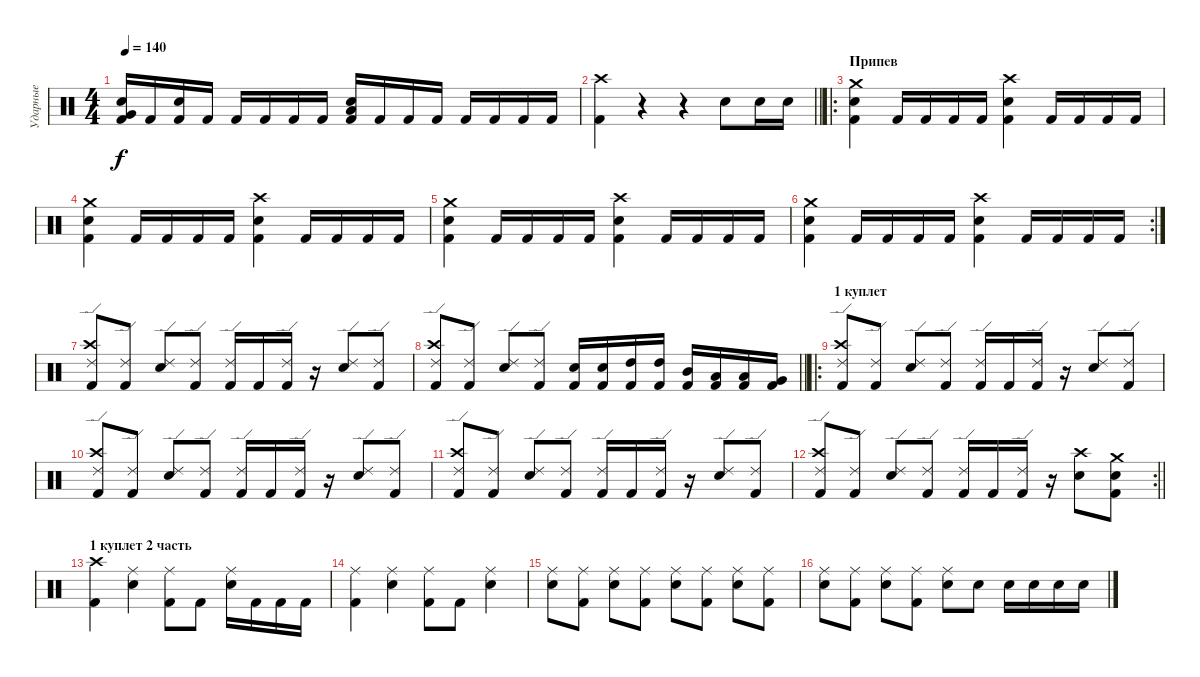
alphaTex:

\track ("Ударные" "Ударные") {instrument percussion}
\staff {score}
\articulation defaults
\ts (4 4)
\tempo 140
\clef neutral
\ks c
("Snare (hit) 2" "Very Low Tom (hit)" "Kick (hit) 2").16{dy f} "Kick (hit) 2".16 ("Snare (hit) 2" "Kick (hit) 2").16 "Kick (hit) 2".16 "Kick (hit) 2".16 "Kick (hit) 2".16 "Kick (hit) 2".16 "Kick (hit) 2".16 ("Snare (hit) 2" "Low Floor Tom (hit)" "Kick (hit) 2").16 "Kick (hit) 2".16 "Kick (hit) 2".16 "Kick (hit) 2".16 "Kick (hit) 2".16 "Kick (hit) 2".16 "Kick (hit) 2".16 "Kick (hit) 2".16 |
\barLineRight lightlight
("Crash high (hit)" "Kick (hit) 2").4 r.4 r.4 "Snare (hit) 2".8 "Snare (hit) 2".16 "Snare (hit) 2".16 |
\ro
\section ("" "Припев")
("Snare (hit) 2" "Crash medium (hit)" "Kick (hit) 2").4 "Kick (hit) 2".16 "Kick (hit) 2".16 "Kick (hit) 2".16 "Kick (hit) 2".16 ("Snare (hit) 2" "Crash high (hit)" "Kick (hit) 2").4 "Kick (hit) 2".16 "Kick (hit) 2".16 "Kick (hit) 2".16 "Kick (hit) 2".16 |
("Snare (hit) 2" "Crash medium (hit)" "Kick (hit) 2").4 "Kick (hit) 2".16 "Kick (hit) 2".16 "Kick (hit) 2".16 "Kick (hit) 2".16 ("Snare (hit) 2" "Crash high (hit)" "Kick (hit) 2").4 "Kick (hit) 2".16 "Kick (hit) 2".16 "Kick (hit) 2".16 "Kick (hit) 2".16 |
("Snare (hit) 2" "Crash medium (hit)" "Kick (hit) 2").4 "Kick (hit) 2".16 "Kick (hit) 2".16 "Kick (hit) 2".16 "Kick (hit) 2".16 ("Snare (hit) 2" "Crash high (hit)" "Kick (hit) 2").4 "Kick (hit) 2".16 "Kick (hit) 2".16 "Kick (hit) 2".16 "Kick (hit) 2".16 |
\rc 2
("Snare (hit) 2" "Crash medium (hit)" "Kick (hit) 2").4 "Kick (hit) 2".16 "Kick (hit) 2".16 "Kick (hit) 2".16 "Kick (hit) 2".16 ("Snare (hit) 2" "Crash high (hit)" "Kick (hit) 2").4 "Kick (hit) 2".16 "Kick (hit) 2".16 "Kick (hit) 2".16 "Kick (hit) 2".16 |
("Crash high (hit)" "Ride (edge) 2" "Kick (hit) 2").8 ("Ride (edge) 2" "Kick (hit) 2").8 ("Snare (hit) 2" "Ride (edge) 2").8 ("Ride (edge) 2" "Kick (hit) 2").8 ("Ride (edge) 2" "Kick (hit) 2").16 "Kick (hit) 2".16 ("Ride (edge) 2" "Kick (hit) 2").16 r.16 ("Snare (hit) 2" "Ride (edge) 2").8 ("Ride (edge) 2" "Kick (hit) 2").8 |
\barLineRight lightlight
("Crash high (hit)" "Ride (edge) 2" "Kick (hit) 2").8 ("Ride (edge) 2" "Kick (hit) 2").8 ("Snare (hit) 2" "Ride (edge) 2").8 ("Ride (edge) 2" "Kick (hit) 2").8 ("Snare (hit) 2" "Kick (hit) 2").16 ("Snare (hit) 2" "Kick (hit) 2").16 ("High Tom (hit)" "Kick (hit) 2").16 ("High Tom (hit)" "Kick (hit) 2").16 ("Mid Tom (hit)" "Kick (hit) 2").16 ("Low Tom (hit)" "Kick (hit) 2").16 ("Low Tom (hit)" "Kick (hit) 2").16 ("Very Low Tom (hit)" "Kick (hit) 2").16 |
\ro
\section ("" "1 куплет")
("Crash high (hit)" "Ride (edge) 2" "Kick (hit) 2").8 ("Ride (edge) 2" "Kick (hit) 2").8 ("Snare (hit) 2" "Ride (edge) 2").8 ("Ride (edge) 2" "Kick (hit) 2").8 ("Ride (edge) 2" "Kick (hit) 2").16 "Kick (hit) 2".16 ("Ride (edge) 2" "Kick (hit) 2").16 r.16 ("Snare (hit) 2" "Ride (edge) 2").8 ("Ride (edge) 2" "Kick (hit) 2").8 |
("Crash high (hit)" "Ride (edge) 2" "Kick (hit) 2").8 ("Ride (edge) 2" "Kick (hit) 2").8 ("Snare (hit) 2" "Ride (edge) 2").8 ("Ride (edge) 2" "Kick (hit) 2").8 ("Ride (edge) 2" "Kick (hit) 2").16 "Kick (hit) 2".16 ("Ride (edge) 2" "Kick (hit) 2").16 r.16 ("Snare (hit) 2" "Ride (edge) 2").8 ("Ride (edge) 2" "Kick (hit) 2").8 |
("Crash high (hit)" "Ride (edge) 2" "Kick (hit) 2").8 ("Ride (edge) 2" "Kick (hit) 2").8 ("Snare (hit) 2" "Ride (edge) 2").8 ("Ride (edge) 2" "Kick (hit) 2").8 ("Ride (edge) 2" "Kick (hit) 2").16 "Kick (hit) 2".16 ("Ride (edge) 2" "Kick (hit) 2").16 r.16 ("Snare (hit) 2" "Ride (edge) 2").8 ("Ride (edge) 2" "Kick (hit) 2").8 |
\rc 2
\barLineRight lightlight
("Crash high (hit)" "Ride (edge) 2" "Kick (hit) 2").8 ("Ride (edge) 2" "Kick (hit) 2").8 ("Snare (hit) 2" "Ride (edge) 2").8 ("Ride (edge) 2" "Kick (hit) 2").8 ("Ride (edge) 2" "Kick (hit) 2").16 "Kick (hit) 2".16 ("Ride (edge) 2" "Kick (hit) 2").16 r.16 ("Snare (hit) 2" "Crash high (hit)").8 ("Snare (hit) 2" "Crash medium (hit)" "Kick (hit) 2").8 |
\section ("" "1 куплет 2 часть")
("Crash high (hit)" "Kick (hit) 2").4 ("Ride (middle)" "Snare (hit) 2").4 ("Ride (middle)" "Kick (hit) 2").8 "Kick (hit) 2".8 ("Ride (middle)" "Snare (hit) 2").16 "Kick (hit) 2".16 "Kick (hit) 2".16 "Kick (hit) 2".16 |
("Ride (middle)" "Kick (hit) 2").4 ("Ride (middle)" "Snare (hit) 2").4 ("Ride (middle)" "Kick (hit) 2").8 "Kick (hit) 2".8 ("Ride (middle)" "Snare (hit) 2").4 |
("Ride (middle)" "Snare (hit) 2").8 ("Ride (middle)" "Kick (hit) 2").8 ("Ride (middle)" "Snare (hit) 2").8 ("Ride (middle)" "Kick (hit) 2").8 ("Ride (middle)" "Snare (hit) 2").8 ("Ride (middle)" "Kick (hit) 2").8 ("Ride (middle)" "Snare (hit) 2").8 ("Ride (middle)" "Kick (hit) 2").8 |
("Ride (middle)" "Snare (hit) 2").8 ("Ride (middle)" "Kick (hit) 2").8 ("Ride (middle)" "Snare (hit) 2").8 ("Ride (middle)" "Kick (hit) 2").8 ("Ride (middle)" "Snare (hit) 2").8 "Snare (hit) 2".8 "Snare (hit) 2".16 "Snare (hit) 2".16 "Snare (hit) 2".16 "Snare (hit) 2".16
